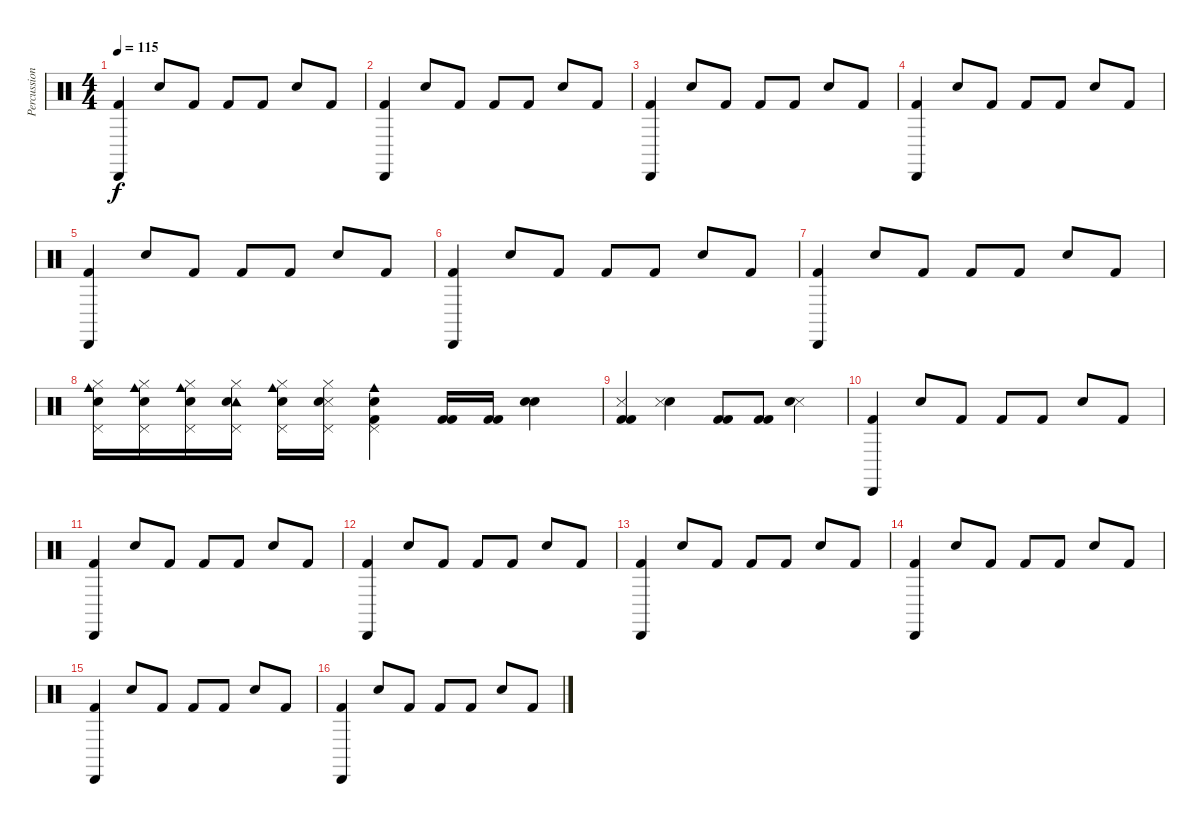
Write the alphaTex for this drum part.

\track ("Percussion" "Percussion") {instrument percussion}
\staff {score}
\articulation defaults
\ts (4 4)
\tempo 115
\clef neutral
\ks c
("Cabasa (hit)" "Kick (hit) 2").4{dy f} "Snare (hit) 2".8 "Kick (hit) 2".8 "Kick (hit) 2".8 "Kick (hit) 2".8 "Snare (hit) 2".8 "Kick (hit) 2".8 |
("Cabasa (hit)" "Kick (hit) 2").4 "Snare (hit) 2".8 "Kick (hit) 2".8 "Kick (hit) 2".8 "Kick (hit) 2".8 "Snare (hit) 2".8 "Kick (hit) 2".8 |
("Kick (hit) 2" "Cabasa (hit)").4 "Snare (hit) 2".8 "Kick (hit) 2".8 "Kick (hit) 2".8 "Kick (hit) 2".8 "Snare (hit) 2".8 "Kick (hit) 2".8 |
("Cabasa (hit)" "Kick (hit) 2").4 "Snare (hit) 2".8 "Kick (hit) 2".8 "Kick (hit) 2".8 "Kick (hit) 2".8 "Snare (hit) 2".8 "Kick (hit) 2".8 |
("Cabasa (hit)" "Kick (hit) 2").4 "Snare (hit) 2".8 "Kick (hit) 2".8 "Kick (hit) 2".8 "Kick (hit) 2".8 "Snare (hit) 2".8 "Kick (hit) 2".8 |
("Kick (hit) 2" "Cabasa (hit)").4 "Snare (hit) 2".8 "Kick (hit) 2".8 "Kick (hit) 2".8 "Kick (hit) 2".8 "Snare (hit) 2".8 "Kick (hit) 2".8 |
("Kick (hit) 2" "Cabasa (hit)").4 "Snare (hit) 2".8 "Kick (hit) 2".8 "Kick (hit) 2".8 "Kick (hit) 2".8 "Snare (hit) 2".8 "Kick (hit) 2".8 |
("Pedal Hi-Hat (hit)" "Snare (hit) 2" "Hi-Hat (closed)" "Cowbell medium (hit)").16 ("Pedal Hi-Hat (hit)" "Snare (hit) 2" "Hi-Hat (closed)" "Cowbell medium (hit)").16 ("Pedal Hi-Hat (hit)" "Snare (hit) 2" "Hi-Hat (closed)" "Cowbell medium (hit)").16 ("Pedal Hi-Hat (hit)" "Tambourine (hit)" "Snare (hit) 2" "Hi-Hat (closed)").16 ("Pedal Hi-Hat (hit)" "Cowbell medium (hit)" "Snare (hit) 2" "Hi-Hat (closed)").16 ("Pedal Hi-Hat (hit)" "Snare (side stick) 3" "Snare (hit) 2" "Hi-Hat (closed)").16 ("Pedal Hi-Hat (hit)" "Kick (hit) 2" "Snare (hit) 2" "Cowbell medium (hit)").4 ("Kick (hit) 2" "Kick (hit) 2").16 ("Kick (hit) 2" "Kick (hit) 2").16 ("Snare (hit) 2" "Snare (hit) 2").4 |
("Kick (hit) 2" "Snare (side stick) 3" "Kick (hit) 2").4 ("Snare (hit) 2" "Snare (side stick) 3").4 ("Kick (hit) 2" "Kick (hit) 2").8 ("Kick (hit) 2" "Kick (hit) 2").8 ("Snare (side stick) 3" "Snare (hit) 2").4 |
("Kick (hit) 2" "Cabasa (hit)").4 "Snare (hit) 2".8 "Kick (hit) 2".8 "Kick (hit) 2".8 "Kick (hit) 2".8 "Snare (hit) 2".8 "Kick (hit) 2".8 |
("Cabasa (hit)" "Kick (hit) 2").4 "Snare (hit) 2".8 "Kick (hit) 2".8 "Kick (hit) 2".8 "Kick (hit) 2".8 "Snare (hit) 2".8 "Kick (hit) 2".8 |
("Kick (hit) 2" "Cabasa (hit)").4 "Snare (hit) 2".8 "Kick (hit) 2".8 "Kick (hit) 2".8 "Kick (hit) 2".8 "Snare (hit) 2".8 "Kick (hit) 2".8 |
("Cabasa (hit)" "Kick (hit) 2").4 "Snare (hit) 2".8 "Kick (hit) 2".8 "Kick (hit) 2".8 "Kick (hit) 2".8 "Snare (hit) 2".8 "Kick (hit) 2".8 |
("Kick (hit) 2" "Cabasa (hit)").4 "Snare (hit) 2".8 "Kick (hit) 2".8 "Kick (hit) 2".8 "Kick (hit) 2".8 "Snare (hit) 2".8 "Kick (hit) 2".8 |
("Cabasa (hit)" "Kick (hit) 2").4 "Snare (hit) 2".8 "Kick (hit) 2".8 "Kick (hit) 2".8 "Kick (hit) 2".8 "Snare (hit) 2".8 "Kick (hit) 2".8 |
("Kick (hit) 2" "Cabasa (hit)").4 "Snare (hit) 2".8 "Kick (hit) 2".8 "Kick (hit) 2".8 "Kick (hit) 2".8 "Snare (hit) 2".8 "Kick (hit) 2".8
